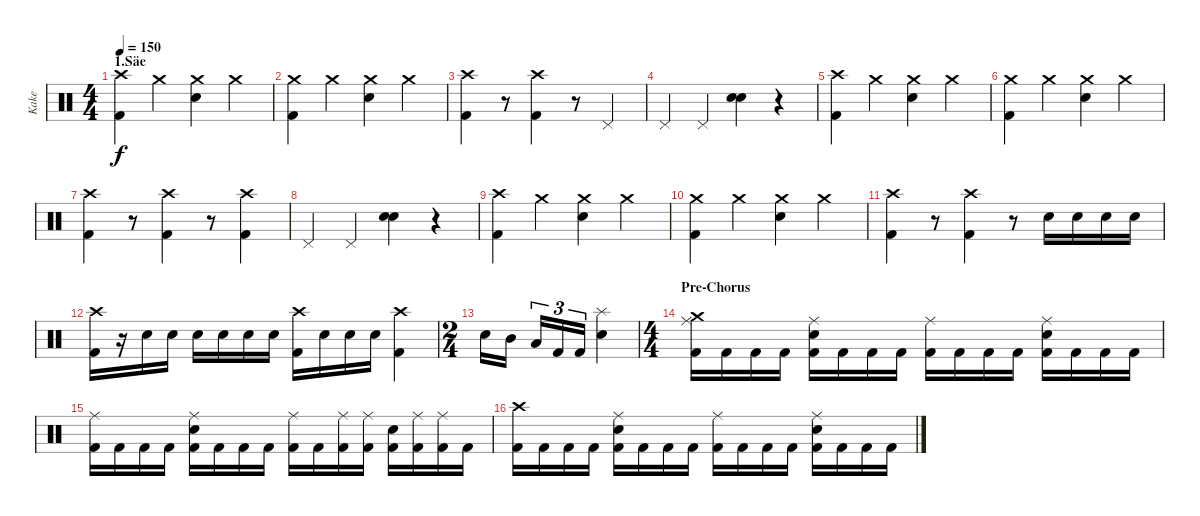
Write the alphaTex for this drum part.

\track ("Kake" "Kake") {instrument percussion}
\staff {score}
\articulation defaults
\ts (4 4)
\section ("" "1.Säe")
\tempo 150
\clef neutral
\ks c
("Crash high (hit)" "Kick (hit) 2").4{dy f} "Crash medium (hit)".4 ("Crash medium (hit)" "Electric Snare (hit)").4 "Crash medium (hit)".4 |
("Crash medium (hit)" "Kick (hit) 2").4 "Crash medium (hit)".4 ("Crash medium (hit)" "Electric Snare (hit)").4 "Crash medium (hit)".4 |
("Crash high (hit)" "Kick (hit) 2").4 r.8 ("Crash high (hit)" "Kick (hit) 2").4 r.8 "Pedal Hi-Hat (hit)".4 |
"Pedal Hi-Hat (hit)".4 "Pedal Hi-Hat (hit)".4 ("Electric Snare (hit)" "Electric Snare (hit)").4 r.4 |
("Crash high (hit)" "Kick (hit) 2").4 "Crash medium (hit)".4 ("Crash medium (hit)" "Electric Snare (hit)").4 "Crash medium (hit)".4 |
("Crash medium (hit)" "Kick (hit) 2").4 "Crash medium (hit)".4 ("Crash medium (hit)" "Electric Snare (hit)").4 "Crash medium (hit)".4 |
("Crash high (hit)" "Kick (hit) 2").4 r.8 ("Crash high (hit)" "Kick (hit) 2").4 r.8 ("Crash high (hit)" "Kick (hit) 2").4 |
"Pedal Hi-Hat (hit)".4 "Pedal Hi-Hat (hit)".4 ("Electric Snare (hit)" "Electric Snare (hit)").4 r.4 |
("Crash high (hit)" "Kick (hit) 2").4 "Crash medium (hit)".4 ("Crash medium (hit)" "Electric Snare (hit)").4 "Crash medium (hit)".4 |
("Crash medium (hit)" "Kick (hit) 2").4 "Crash medium (hit)".4 ("Crash medium (hit)" "Electric Snare (hit)").4 "Crash medium (hit)".4 |
("Crash high (hit)" "Kick (hit) 2").4 r.8 ("Crash high (hit)" "Kick (hit) 2").4 r.8 "Electric Snare (hit)".16 "Electric Snare (hit)".16 "Electric Snare (hit)".16 "Electric Snare (hit)".16 |
("Crash high (hit)" "Kick (hit) 2").16 r.16 "Electric Snare (hit)".16 "Electric Snare (hit)".16 "Electric Snare (hit)".16 "Electric Snare (hit)".16 "Electric Snare (hit)".16 "Electric Snare (hit)".16 ("Crash high (hit)" "Kick (hit) 2").16 "Electric Snare (hit)".16 "Electric Snare (hit)".16 "Electric Snare (hit)".16 ("Crash high (hit)" "Kick (hit) 2").4 |
\ts (2 4)
"Electric Snare (hit)".16 "Mid Tom (hit)".16 "Low Tom (hit)".16{tu (3 2)} "Kick (hit) 2".16{tu (3 2)} "Kick (hit) 2".16{tu (3 2)} ("Splash (hit)" "Electric Snare (hit)").4 |
\ts (4 4)
\section ("" "Pre-Chorus")
("Ride (middle)" "Crash medium (hit)" "Kick (hit) 2").16 "Kick (hit) 2".16 "Kick (hit) 2".16 "Kick (hit) 2".16 ("Ride (middle)" "Electric Snare (hit)" "Kick (hit) 2").16 "Kick (hit) 2".16 "Kick (hit) 2".16 "Kick (hit) 2".16 ("Ride (middle)" "Kick (hit) 2").16 "Kick (hit) 2".16 "Kick (hit) 2".16 "Kick (hit) 2".16 ("Ride (middle)" "Electric Snare (hit)" "Kick (hit) 2").16 "Kick (hit) 2".16 "Kick (hit) 2".16 "Kick (hit) 2".16 |
("Ride (middle)" "Kick (hit) 2").16 "Kick (hit) 2".16 "Kick (hit) 2".16 "Kick (hit) 2".16 ("Ride (middle)" "Electric Snare (hit)" "Kick (hit) 2").16 "Kick (hit) 2".16 "Kick (hit) 2".16 "Kick (hit) 2".16 ("Ride (middle)" "Kick (hit) 2").16 "Kick (hit) 2".16 ("Ride (middle)" "Kick (hit) 2").16 ("Ride (middle)" "Kick (hit) 2").16 ("Electric Snare (hit)" "Kick (hit) 2").16 ("Ride (middle)" "Kick (hit) 2").16 ("Ride (middle)" "Kick (hit) 2").16 "Kick (hit) 2".16 |
("Crash high (hit)" "Kick (hit) 2").16 "Kick (hit) 2".16 "Kick (hit) 2".16 "Kick (hit) 2".16 ("Ride (middle)" "Electric Snare (hit)" "Kick (hit) 2").16 "Kick (hit) 2".16 "Kick (hit) 2".16 "Kick (hit) 2".16 ("Ride (middle)" "Kick (hit) 2").16 "Kick (hit) 2".16 "Kick (hit) 2".16 "Kick (hit) 2".16 ("Ride (middle)" "Electric Snare (hit)" "Kick (hit) 2").16 "Kick (hit) 2".16 "Kick (hit) 2".16 "Kick (hit) 2".16
